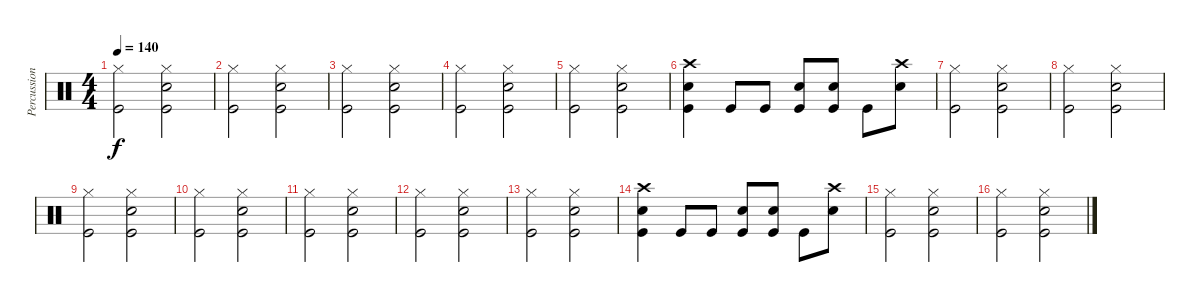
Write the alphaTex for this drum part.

\track ("Percussion" "Percussion") {instrument percussion}
\staff {score}
\articulation defaults
\ts (4 4)
\tempo 140
\clef neutral
\ks c
("Hi-Hat (closed)" "Kick (hit)").2{dy f} ("Hi-Hat (closed)" "Snare (hit) 2" "Kick (hit)").2 |
("Hi-Hat (closed)" "Kick (hit)").2 ("Hi-Hat (closed)" "Snare (hit) 2" "Kick (hit)").2 |
("Hi-Hat (closed)" "Kick (hit)").2 ("Hi-Hat (closed)" "Snare (hit) 2" "Kick (hit)").2 |
("Hi-Hat (closed)" "Kick (hit)").2 ("Hi-Hat (closed)" "Snare (hit) 2" "Kick (hit)").2 |
("Hi-Hat (closed)" "Kick (hit)").2 ("Hi-Hat (closed)" "Snare (hit) 2" "Kick (hit)").2 |
("Crash high (hit)" "Snare (hit) 2" "Kick (hit)").4 "Kick (hit)".8 "Kick (hit)".8 ("Snare (hit) 2" "Kick (hit)").8 ("Snare (hit) 2" "Kick (hit)").8 "Kick (hit)".8 ("Crash high (hit)" "Snare (hit) 2").8 |
("Hi-Hat (closed)" "Kick (hit)").2 ("Hi-Hat (closed)" "Snare (hit) 2" "Kick (hit)").2 |
("Hi-Hat (closed)" "Kick (hit)").2 ("Hi-Hat (closed)" "Snare (hit) 2" "Kick (hit)").2 |
("Hi-Hat (closed)" "Kick (hit)").2 ("Hi-Hat (closed)" "Snare (hit) 2" "Kick (hit)").2 |
("Hi-Hat (closed)" "Kick (hit)").2 ("Hi-Hat (closed)" "Snare (hit) 2" "Kick (hit)").2 |
("Hi-Hat (closed)" "Kick (hit)").2 ("Hi-Hat (closed)" "Snare (hit) 2" "Kick (hit)").2 |
("Hi-Hat (closed)" "Kick (hit)").2 ("Hi-Hat (closed)" "Snare (hit) 2" "Kick (hit)").2 |
("Hi-Hat (closed)" "Kick (hit)").2 ("Hi-Hat (closed)" "Snare (hit) 2" "Kick (hit)").2 |
("Crash high (hit)" "Snare (hit) 2" "Kick (hit)").4 "Kick (hit)".8 "Kick (hit)".8 ("Snare (hit) 2" "Kick (hit)").8 ("Snare (hit) 2" "Kick (hit)").8 "Kick (hit)".8 ("Crash high (hit)" "Snare (hit) 2").8 |
("Hi-Hat (closed)" "Kick (hit)").2 ("Hi-Hat (closed)" "Snare (hit) 2" "Kick (hit)").2 |
("Hi-Hat (closed)" "Kick (hit)").2 ("Hi-Hat (closed)" "Snare (hit) 2" "Kick (hit)").2
